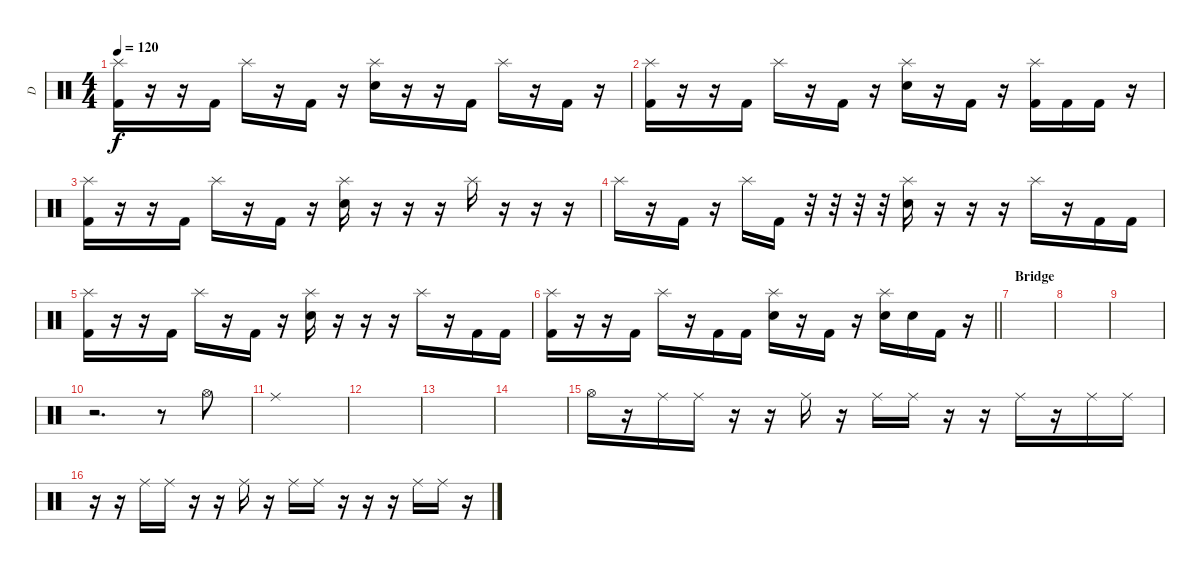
\track ("D" "D") {instrument percussion}
\staff {score}
\articulation defaults
\ts (4 4)
\tempo 120
\clef neutral
\ks c
("Kick (hit) 2" "Splash (hit)").16{dy f} r.16 r.16 "Kick (hit) 2".16 "Splash (hit)".16 r.16 "Kick (hit) 2".16 r.16 ("Electric Snare (hit)" "Splash (hit)").16 r.16 r.16 "Kick (hit) 2".16 "Splash (hit)".16 r.16 "Kick (hit) 2".16 r.16 |
("Kick (hit) 2" "Splash (hit)").16 r.16 r.16 "Kick (hit) 2".16 "Splash (hit)".16 r.16 "Kick (hit) 2".16 r.16 ("Electric Snare (hit)" "Splash (hit)").16 r.16 "Kick (hit) 2".16 r.16 ("Kick (hit) 2" "Splash (hit)").16 "Kick (hit) 2".16 "Kick (hit) 2".16 r.16 |
("Kick (hit) 2" "Splash (hit)").16 r.16 r.16 "Kick (hit) 2".16 "Splash (hit)".16 r.16 "Kick (hit) 2".16 r.16 ("Electric Snare (hit)" "Splash (hit)").16 r.16 r.16 r.16 "Splash (hit)".16 r.16 r.16 r.16 |
"Splash (hit)".16 r.16 "Kick (hit) 2".16 r.16 "Splash (hit)".16 "Kick (hit) 2".16 r.32 r.32 r.32 r.32 ("Electric Snare (hit)" "Splash (hit)").16 r.16 r.16 r.16 "Splash (hit)".16 r.16 "Kick (hit) 2".16 "Kick (hit) 2".16 |
("Kick (hit) 2" "Splash (hit)").16 r.16 r.16 "Kick (hit) 2".16 "Splash (hit)".16 r.16 "Kick (hit) 2".16 r.16 ("Electric Snare (hit)" "Splash (hit)").16 r.16 r.16 r.16 "Splash (hit)".16 r.16 "Kick (hit) 2".16 "Kick (hit) 2".16 |
\barLineRight lightlight
("Kick (hit) 2" "Splash (hit)").16 r.16 r.16 "Kick (hit) 2".16 "Splash (hit)".16 r.16 "Kick (hit) 2".16 "Kick (hit) 2".16 ("Electric Snare (hit)" "Splash (hit)").16 r.16 "Kick (hit) 2".16 r.16 ("Electric Snare (hit)" "Splash (hit)").16 "Electric Snare (hit)".16 "Kick (hit) 2".16 r.16 |
\section ("" "Bridge")
|
|
|
r.2{d} r.8 "Hi-Hat (open)".8 |
"Ride (middle)".1 |
|
|
|
"Hi-Hat (open)".16 r.16 "Ride (middle)".16 "Ride (middle)".16 r.16 r.16 "Ride (middle)".16 r.16 "Ride (middle)".16 "Ride (middle)".16 r.16 r.16 "Ride (middle)".16 r.16 "Ride (middle)".16 "Ride (middle)".16 |
r.16 r.16 "Ride (middle)".16 "Ride (middle)".16 r.16 r.16 "Ride (middle)".16 r.16 "Ride (middle)".16 "Ride (middle)".16 r.16 r.16 r.16 "Ride (middle)".16 "Ride (middle)".16 r.16
